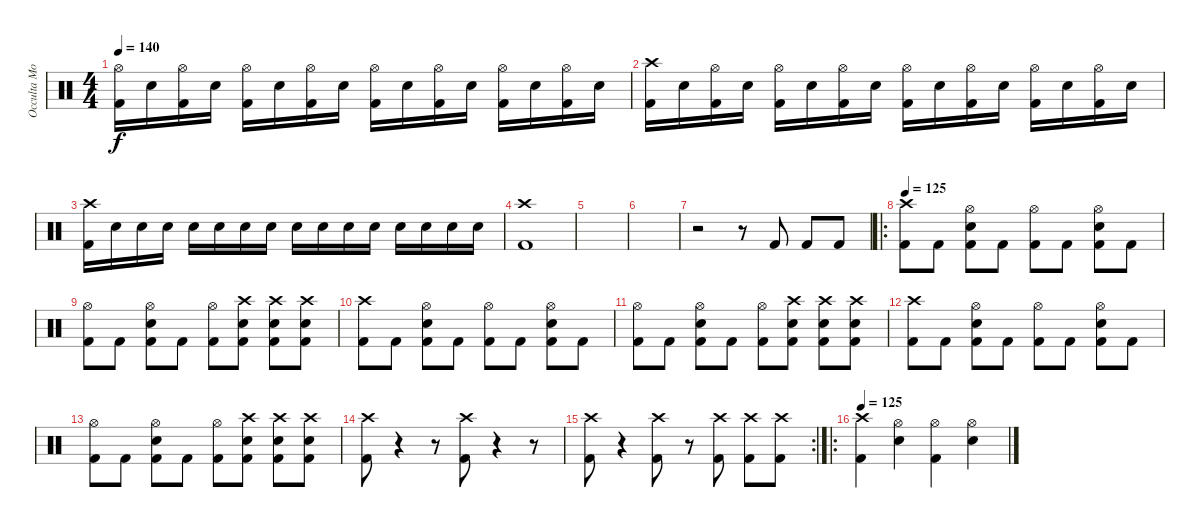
\track ("Occulta Mors" "Occulta Mo") {instrument percussion}
\staff {score}
\articulation defaults
\ts (4 4)
\tempo 140
\clef neutral
\ks c
("Hi-Hat (open)" "Kick (hit) 2").16{dy f} "Snare (hit) 2".16 ("Hi-Hat (open)" "Kick (hit) 2").16 "Snare (hit) 2".16 ("Hi-Hat (open)" "Kick (hit) 2").16 "Snare (hit) 2".16 ("Hi-Hat (open)" "Kick (hit) 2").16 "Snare (hit) 2".16 ("Hi-Hat (open)" "Kick (hit) 2").16 "Snare (hit) 2".16 ("Hi-Hat (open)" "Kick (hit) 2").16 "Snare (hit) 2".16 ("Hi-Hat (open)" "Kick (hit) 2").16 "Snare (hit) 2".16 ("Hi-Hat (open)" "Kick (hit) 2").16 "Snare (hit) 2".16 |
("Crash high (hit)" "Kick (hit) 2").16 "Snare (hit) 2".16 ("Hi-Hat (open)" "Kick (hit) 2").16 "Snare (hit) 2".16 ("Hi-Hat (open)" "Kick (hit) 2").16 "Snare (hit) 2".16 ("Hi-Hat (open)" "Kick (hit) 2").16 "Snare (hit) 2".16 ("Hi-Hat (open)" "Kick (hit) 2").16 "Snare (hit) 2".16 ("Hi-Hat (open)" "Kick (hit) 2").16 "Snare (hit) 2".16 ("Hi-Hat (open)" "Kick (hit) 2").16 "Snare (hit) 2".16 ("Hi-Hat (open)" "Kick (hit) 2").16 "Snare (hit) 2".16 |
("Crash high (hit)" "Kick (hit) 2").16 "Snare (hit) 2".16 "Snare (hit) 2".16 "Snare (hit) 2".16 "Snare (hit) 2".16 "Snare (hit) 2".16 "Snare (hit) 2".16 "Snare (hit) 2".16 "Snare (hit) 2".16 "Snare (hit) 2".16 "Snare (hit) 2".16 "Snare (hit) 2".16 "Snare (hit) 2".16 "Snare (hit) 2".16 "Snare (hit) 2".16 "Snare (hit) 2".16 |
("Crash high (hit)" "Kick (hit) 2").1 |
|
|
r.2 r.8 "Kick (hit) 2".8 "Kick (hit) 2".8 "Kick (hit) 2".8 |
\ro
\tempo 125
("Crash high (hit)" "Kick (hit) 2").8 "Kick (hit) 2".8 ("Hi-Hat (open)" "Snare (hit) 2" "Kick (hit) 2").8 "Kick (hit) 2".8 ("Hi-Hat (open)" "Kick (hit) 2").8 "Kick (hit) 2".8 ("Hi-Hat (open)" "Snare (hit) 2" "Kick (hit) 2").8 "Kick (hit) 2".8 |
("Hi-Hat (open)" "Kick (hit) 2").8 "Kick (hit) 2".8 ("Hi-Hat (open)" "Snare (hit) 2" "Kick (hit) 2").8 "Kick (hit) 2".8 ("Hi-Hat (open)" "Kick (hit) 2").8 ("Crash high (hit)" "Snare (hit) 2" "Kick (hit) 2").8 ("Crash high (hit)" "Snare (hit) 2" "Kick (hit) 2").8 ("Crash high (hit)" "Snare (hit) 2" "Kick (hit) 2").8 |
("Crash high (hit)" "Kick (hit) 2").8 "Kick (hit) 2".8 ("Hi-Hat (open)" "Snare (hit) 2" "Kick (hit) 2").8 "Kick (hit) 2".8 ("Hi-Hat (open)" "Kick (hit) 2").8 "Kick (hit) 2".8 ("Hi-Hat (open)" "Snare (hit) 2" "Kick (hit) 2").8 "Kick (hit) 2".8 |
("Hi-Hat (open)" "Kick (hit) 2").8 "Kick (hit) 2".8 ("Hi-Hat (open)" "Snare (hit) 2" "Kick (hit) 2").8 "Kick (hit) 2".8 ("Hi-Hat (open)" "Kick (hit) 2").8 ("Crash high (hit)" "Snare (hit) 2" "Kick (hit) 2").8 ("Crash high (hit)" "Snare (hit) 2" "Kick (hit) 2").8 ("Crash high (hit)" "Snare (hit) 2" "Kick (hit) 2").8 |
("Crash high (hit)" "Kick (hit) 2").8 "Kick (hit) 2".8 ("Hi-Hat (open)" "Snare (hit) 2" "Kick (hit) 2").8 "Kick (hit) 2".8 ("Hi-Hat (open)" "Kick (hit) 2").8 "Kick (hit) 2".8 ("Hi-Hat (open)" "Snare (hit) 2" "Kick (hit) 2").8 "Kick (hit) 2".8 |
("Hi-Hat (open)" "Kick (hit) 2").8 "Kick (hit) 2".8 ("Hi-Hat (open)" "Snare (hit) 2" "Kick (hit) 2").8 "Kick (hit) 2".8 ("Hi-Hat (open)" "Kick (hit) 2").8 ("Crash high (hit)" "Snare (hit) 2" "Kick (hit) 2").8 ("Crash high (hit)" "Snare (hit) 2" "Kick (hit) 2").8 ("Crash high (hit)" "Snare (hit) 2" "Kick (hit) 2").8 |
("Crash high (hit)" "Kick (hit) 2").8 r.4 r.8 ("Crash high (hit)" "Kick (hit) 2").8 r.4 r.8 |
\rc 2
("Crash high (hit)" "Kick (hit) 2").8 r.4 ("Crash high (hit)" "Kick (hit) 2").8 r.8 ("Crash high (hit)" "Kick (hit) 2").8 ("Crash high (hit)" "Kick (hit) 2").8 ("Crash high (hit)" "Kick (hit) 2").8 |
\ro
\tempo 125
("Crash high (hit)" "Kick (hit) 2").4 ("Hi-Hat (open)" "Snare (hit) 2").4 ("Hi-Hat (open)" "Kick (hit) 2").4 ("Hi-Hat (open)" "Snare (hit) 2").4
